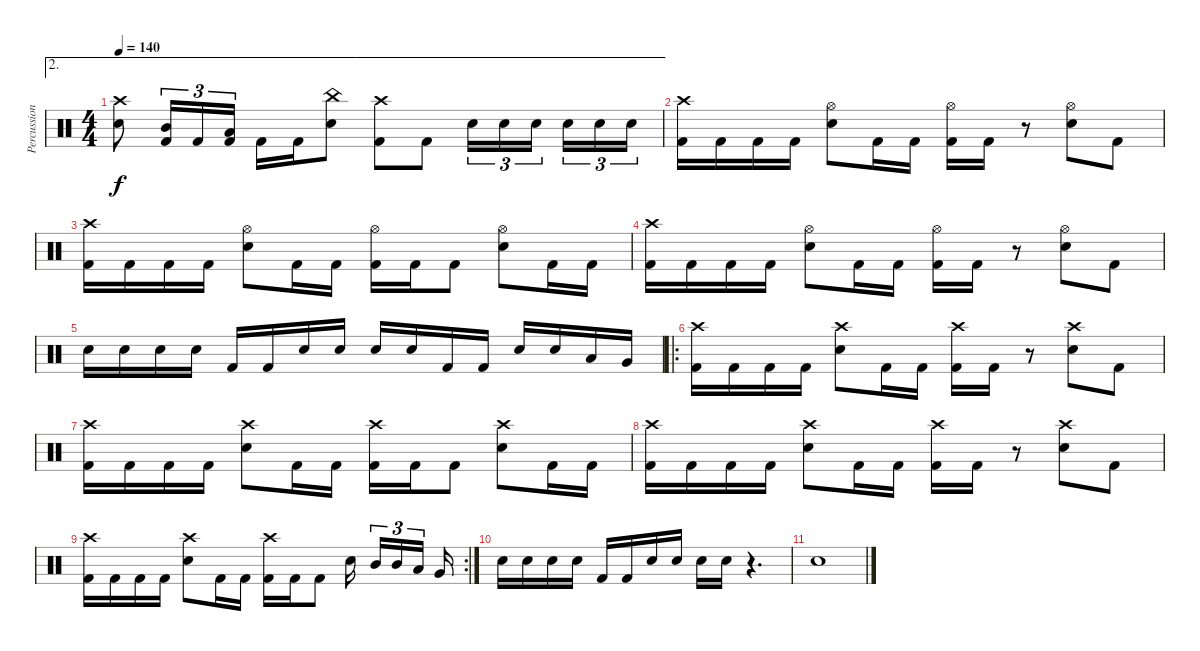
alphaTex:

\track ("Percussions" "Percussion") {instrument percussion}
\staff {score}
\articulation defaults
\ae 2
\ts (4 4)
\tempo 140
\clef neutral
\ks c
("Crash high (hit)" "Snare (hit) 2").8{dy f} ("Mid Tom (hit)" "Kick (hit) 2").16{tu (3 2)} "Kick (hit) 2".16{tu (3 2)} ("Low Tom (hit)" "Kick (hit) 2").16{tu (3 2)} "Kick (hit) 2".16 "Kick (hit) 2".16 ("China (hit)" "Snare (hit) 2").8 ("Crash high (hit)" "Kick (hit) 2").8 "Kick (hit) 2".8 "Snare (hit) 2".16{tu (3 2)} "Snare (hit) 2".16{tu (3 2)} "Snare (hit) 2".16{tu (3 2)} "Snare (hit) 2".16{tu (3 2)} "Snare (hit) 2".16{tu (3 2)} "Snare (hit) 2".16{tu (3 2)} |
("Crash high (hit)" "Kick (hit) 2").16 "Kick (hit) 2".16 "Kick (hit) 2".16 "Kick (hit) 2".16 ("Hi-Hat (open)" "Snare (hit) 2").8 "Kick (hit) 2".16 "Kick (hit) 2".16 ("Hi-Hat (open)" "Kick (hit) 2").16 "Kick (hit) 2".16 r.8 ("Hi-Hat (open)" "Snare (hit) 2").8 "Kick (hit) 2".8 |
("Crash high (hit)" "Kick (hit) 2").16 "Kick (hit) 2".16 "Kick (hit) 2".16 "Kick (hit) 2".16 ("Hi-Hat (open)" "Snare (hit) 2").8 "Kick (hit) 2".16 "Kick (hit) 2".16 ("Hi-Hat (open)" "Kick (hit) 2").16 "Kick (hit) 2".16 "Kick (hit) 2".8 ("Hi-Hat (open)" "Snare (hit) 2").8 "Kick (hit) 2".16 "Kick (hit) 2".16 |
("Crash high (hit)" "Kick (hit) 2").16 "Kick (hit) 2".16 "Kick (hit) 2".16 "Kick (hit) 2".16 ("Hi-Hat (open)" "Snare (hit) 2").8 "Kick (hit) 2".16 "Kick (hit) 2".16 ("Hi-Hat (open)" "Kick (hit) 2").16 "Kick (hit) 2".16 r.8 ("Hi-Hat (open)" "Snare (hit) 2").8 "Kick (hit) 2".8 |
"Snare (hit) 2".16 "Snare (hit) 2".16 "Snare (hit) 2".16 "Snare (hit) 2".16 "Kick (hit) 2".16 "Kick (hit) 2".16 "Snare (hit) 2".16 "Snare (hit) 2".16 "Snare (hit) 2".16 "Snare (hit) 2".16 "Kick (hit) 2".16 "Kick (hit) 2".16 "Snare (hit) 2".16 "Snare (hit) 2".16 "Low Tom (hit)".16 "Very Low Tom (hit)".16 |
\ro
("Crash high (hit)" "Kick (hit) 2").16 "Kick (hit) 2".16 "Kick (hit) 2".16 "Kick (hit) 2".16 ("Crash high (hit)" "Snare (hit) 2").8 "Kick (hit) 2".16 "Kick (hit) 2".16 ("Crash high (hit)" "Kick (hit) 2").16 "Kick (hit) 2".16 r.8 ("Crash high (hit)" "Snare (hit) 2").8 "Kick (hit) 2".8 |
("Crash high (hit)" "Kick (hit) 2").16 "Kick (hit) 2".16 "Kick (hit) 2".16 "Kick (hit) 2".16 ("Crash high (hit)" "Snare (hit) 2").8 "Kick (hit) 2".16 "Kick (hit) 2".16 ("Crash high (hit)" "Kick (hit) 2").16 "Kick (hit) 2".16 "Kick (hit) 2".8 ("Crash high (hit)" "Snare (hit) 2").8 "Kick (hit) 2".16 "Kick (hit) 2".16 |
("Crash high (hit)" "Kick (hit) 2").16 "Kick (hit) 2".16 "Kick (hit) 2".16 "Kick (hit) 2".16 ("Crash high (hit)" "Snare (hit) 2").8 "Kick (hit) 2".16 "Kick (hit) 2".16 ("Crash high (hit)" "Kick (hit) 2").16 "Kick (hit) 2".16 r.8 ("Crash high (hit)" "Snare (hit) 2").8 "Kick (hit) 2".8 |
\rc 2
("Crash high (hit)" "Kick (hit) 2").16 "Kick (hit) 2".16 "Kick (hit) 2".16 "Kick (hit) 2".16 ("Crash high (hit)" "Snare (hit) 2").8 "Kick (hit) 2".16 "Kick (hit) 2".16 ("Crash high (hit)" "Kick (hit) 2").16 "Kick (hit) 2".16 "Kick (hit) 2".8 "Snare (hit) 2".16 "Mid Tom (hit)".16{tu (3 2)} "Mid Tom (hit)".16{tu (3 2)} "Low Tom (hit)".16{tu (3 2)} "Very Low Tom (hit)".16 |
"Snare (hit) 2".16 "Snare (hit) 2".16 "Snare (hit) 2".16 "Snare (hit) 2".16 "Kick (hit) 2".16 "Kick (hit) 2".16 "Snare (hit) 2".16 "Snare (hit) 2".16 "Snare (hit) 2".16 "Snare (hit) 2".16 r.4{d} |
"Snare (hit)".1
